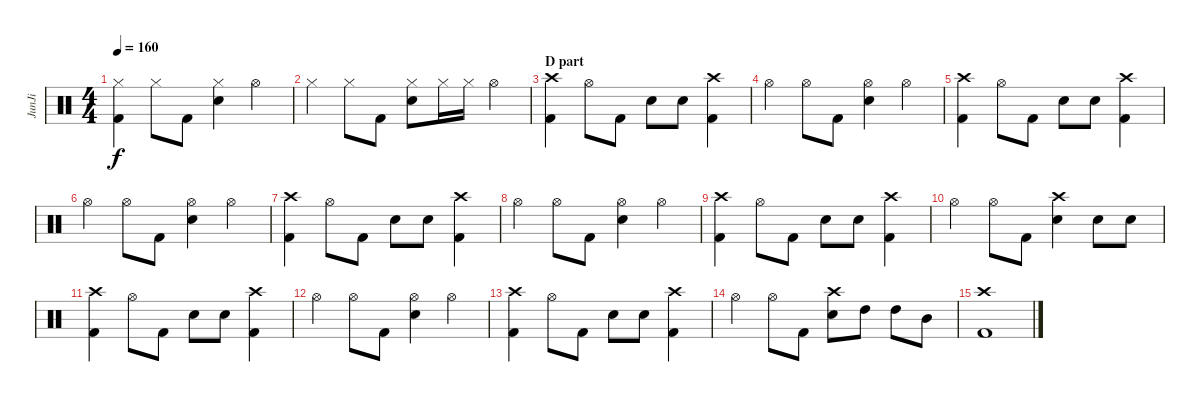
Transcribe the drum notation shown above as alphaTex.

\track ("JunJi" "JunJi") {instrument percussion}
\staff {score}
\articulation defaults
\ts (4 4)
\tempo 160
\clef neutral
\ks c
("Hi-Hat (closed)" "Kick (hit) 2").4{dy f} "Hi-Hat (closed)".8 "Kick (hit) 2".8 ("Hi-Hat (closed)" "Snare (hit) 2").4 "Hi-Hat (open)".4 |
"Hi-Hat (closed)".4 "Hi-Hat (closed)".8 "Kick (hit) 2".8 ("Hi-Hat (closed)" "Snare (hit) 2").8 "Hi-Hat (closed)".16 "Hi-Hat (closed)".16 "Hi-Hat (open)".4 |
\section ("" "D part")
("Crash high (hit)" "Kick (hit) 2").4 "Hi-Hat (open)".8 "Kick (hit) 2".8 "Snare (hit) 2".8 "Snare (hit) 2".8 ("Crash high (hit)" "Kick (hit) 2").4 |
"Hi-Hat (open)".4 "Hi-Hat (open)".8 "Kick (hit) 2".8 ("Hi-Hat (open)" "Snare (hit) 2").4 "Hi-Hat (open)".4 |
("Crash high (hit)" "Kick (hit) 2").4 "Hi-Hat (open)".8 "Kick (hit) 2".8 "Snare (hit) 2".8 "Snare (hit) 2".8 ("Crash high (hit)" "Kick (hit) 2").4 |
"Hi-Hat (open)".4 "Hi-Hat (open)".8 "Kick (hit) 2".8 ("Hi-Hat (open)" "Snare (hit) 2").4 "Hi-Hat (open)".4 |
("Crash high (hit)" "Kick (hit) 2").4 "Hi-Hat (open)".8 "Kick (hit) 2".8 "Snare (hit) 2".8 "Snare (hit) 2".8 ("Crash high (hit)" "Kick (hit) 2").4 |
"Hi-Hat (open)".4 "Hi-Hat (open)".8 "Kick (hit) 2".8 ("Hi-Hat (open)" "Snare (hit) 2").4 "Hi-Hat (open)".4 |
("Crash high (hit)" "Kick (hit) 2").4 "Hi-Hat (open)".8 "Kick (hit) 2".8 "Snare (hit) 2".8 "Snare (hit) 2".8 ("Crash high (hit)" "Kick (hit) 2").4 |
"Hi-Hat (open)".4 "Hi-Hat (open)".8 "Kick (hit) 2".8 ("Crash high (hit)" "Snare (hit) 2").4 "Snare (hit) 2".8 "Snare (hit) 2".8 |
("Crash high (hit)" "Kick (hit) 2").4 "Hi-Hat (open)".8 "Kick (hit) 2".8 "Snare (hit) 2".8 "Snare (hit) 2".8 ("Crash high (hit)" "Kick (hit) 2").4 |
"Hi-Hat (open)".4 "Hi-Hat (open)".8 "Kick (hit) 2".8 ("Hi-Hat (open)" "Snare (hit) 2").4 "Hi-Hat (open)".4 |
("Crash high (hit)" "Kick (hit) 2").4 "Hi-Hat (open)".8 "Kick (hit) 2".8 "Snare (hit) 2".8 "Snare (hit) 2".8 ("Crash high (hit)" "Kick (hit) 2").4 |
"Hi-Hat (open)".4 "Hi-Hat (open)".8 "Kick (hit) 2".8 ("Crash high (hit)" "Snare (hit) 2").8 "High Tom (hit)".8 "High Tom (hit)".8 "Mid Tom (hit)".8 |
("Crash high (hit)" "Kick (hit) 2").1
